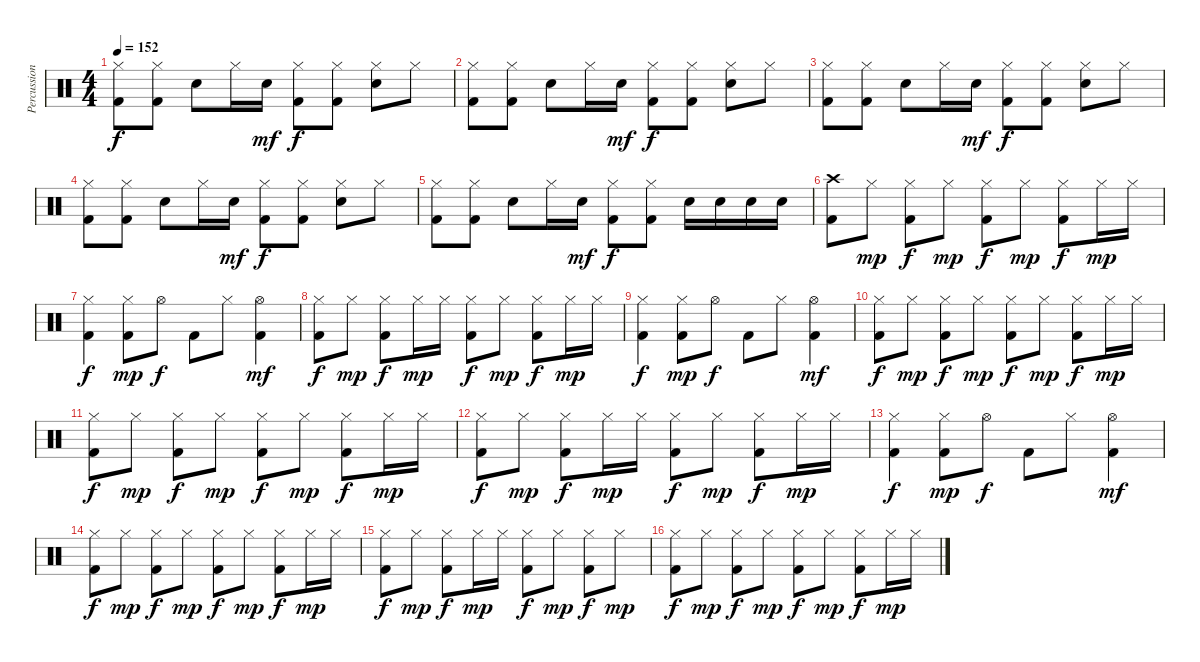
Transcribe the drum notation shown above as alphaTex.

\track ("Percussion" "Percussion") {instrument percussion}
\staff {score}
\articulation defaults
\ts (4 4)
\tempo 152
\clef neutral
\ks c
("Kick (hit) 2" "Hi-Hat (closed)").8{dy f} ("Kick (hit) 2" "Hi-Hat (closed)").8 "Electric Snare (hit)".8 "Hi-Hat (closed)".16 "Electric Snare (hit)".16{dy mf} ("Kick (hit) 2" "Hi-Hat (closed)").8{dy f} ("Kick (hit) 2" "Hi-Hat (closed)").8 ("Electric Snare (hit)" "Hi-Hat (closed)").8 "Hi-Hat (closed)".8 |
("Kick (hit) 2" "Hi-Hat (closed)").8 ("Kick (hit) 2" "Hi-Hat (closed)").8 "Electric Snare (hit)".8 "Hi-Hat (closed)".16 "Electric Snare (hit)".16{dy mf} ("Kick (hit) 2" "Hi-Hat (closed)").8{dy f} ("Kick (hit) 2" "Hi-Hat (closed)").8 ("Electric Snare (hit)" "Hi-Hat (closed)").8 "Hi-Hat (closed)".8 |
("Kick (hit) 2" "Hi-Hat (closed)").8 ("Kick (hit) 2" "Hi-Hat (closed)").8 "Electric Snare (hit)".8 "Hi-Hat (closed)".16 "Electric Snare (hit)".16{dy mf} ("Kick (hit) 2" "Hi-Hat (closed)").8{dy f} ("Kick (hit) 2" "Hi-Hat (closed)").8 ("Electric Snare (hit)" "Hi-Hat (closed)").8 "Hi-Hat (closed)".8 |
("Kick (hit) 2" "Hi-Hat (closed)").8 ("Kick (hit) 2" "Hi-Hat (closed)").8 "Electric Snare (hit)".8 "Hi-Hat (closed)".16 "Electric Snare (hit)".16{dy mf} ("Kick (hit) 2" "Hi-Hat (closed)").8{dy f} ("Kick (hit) 2" "Hi-Hat (closed)").8 ("Electric Snare (hit)" "Hi-Hat (closed)").8 "Hi-Hat (closed)".8 |
("Kick (hit) 2" "Hi-Hat (closed)").8 ("Kick (hit) 2" "Hi-Hat (closed)").8 "Electric Snare (hit)".8 "Hi-Hat (closed)".16 "Electric Snare (hit)".16{dy mf} ("Kick (hit) 2" "Hi-Hat (closed)").8{dy f} ("Kick (hit) 2" "Hi-Hat (closed)").8 "Electric Snare (hit)".16 "Electric Snare (hit)".16 "Electric Snare (hit)".16 "Electric Snare (hit)".16 |
("Kick (hit) 2" "Crash high (hit)").8 "Hi-Hat (closed)".8{dy mp} ("Kick (hit) 2" "Hi-Hat (closed)").8{dy f} "Hi-Hat (closed)".8{dy mp} ("Kick (hit) 2" "Hi-Hat (closed)").8{dy f} "Hi-Hat (closed)".8{dy mp} ("Kick (hit) 2" "Hi-Hat (closed)").8{dy f} "Hi-Hat (closed)".16{dy mp} "Hi-Hat (closed)".16 |
("Kick (hit) 2" "Hi-Hat (closed)").4{dy f} ("Kick (hit) 2" "Hi-Hat (closed)").8{dy mp} "Hi-Hat (open)".8{dy f} "Kick (hit) 2".8 "Hi-Hat (closed)".8 ("Hi-Hat (open)" "Kick (hit) 2").4{dy mf} |
("Kick (hit) 2" "Hi-Hat (closed)").8{dy f} "Hi-Hat (closed)".8{dy mp} ("Kick (hit) 2" "Hi-Hat (closed)").8{dy f} "Hi-Hat (closed)".16{dy mp} "Hi-Hat (closed)".16 ("Kick (hit) 2" "Hi-Hat (closed)").8{dy f} "Hi-Hat (closed)".8{dy mp} ("Kick (hit) 2" "Hi-Hat (closed)").8{dy f} "Hi-Hat (closed)".16{dy mp} "Hi-Hat (closed)".16 |
("Kick (hit) 2" "Hi-Hat (closed)").4{dy f} ("Kick (hit) 2" "Hi-Hat (closed)").8{dy mp} "Hi-Hat (open)".8{dy f} "Kick (hit) 2".8 "Hi-Hat (closed)".8 ("Hi-Hat (open)" "Kick (hit) 2").4{dy mf} |
("Kick (hit) 2" "Hi-Hat (closed)").8{dy f} "Hi-Hat (closed)".8{dy mp} ("Kick (hit) 2" "Hi-Hat (closed)").8{dy f} "Hi-Hat (closed)".8{dy mp} ("Kick (hit) 2" "Hi-Hat (closed)").8{dy f} "Hi-Hat (closed)".8{dy mp} ("Kick (hit) 2" "Hi-Hat (closed)").8{dy f} "Hi-Hat (closed)".16{dy mp} "Hi-Hat (closed)".16 |
("Kick (hit) 2" "Hi-Hat (closed)").8{dy f} "Hi-Hat (closed)".8{dy mp} ("Kick (hit) 2" "Hi-Hat (closed)").8{dy f} "Hi-Hat (closed)".8{dy mp} ("Kick (hit) 2" "Hi-Hat (closed)").8{dy f} "Hi-Hat (closed)".8{dy mp} ("Kick (hit) 2" "Hi-Hat (closed)").8{dy f} "Hi-Hat (closed)".16{dy mp} "Hi-Hat (closed)".16 |
("Kick (hit) 2" "Hi-Hat (closed)").8{dy f} "Hi-Hat (closed)".8{dy mp} ("Kick (hit) 2" "Hi-Hat (closed)").8{dy f} "Hi-Hat (closed)".16{dy mp} "Hi-Hat (closed)".16 ("Kick (hit) 2" "Hi-Hat (closed)").8{dy f} "Hi-Hat (closed)".8{dy mp} ("Kick (hit) 2" "Hi-Hat (closed)").8{dy f} "Hi-Hat (closed)".16{dy mp} "Hi-Hat (closed)".16 |
("Kick (hit) 2" "Hi-Hat (closed)").4{dy f} ("Kick (hit) 2" "Hi-Hat (closed)").8{dy mp} "Hi-Hat (open)".8{dy f} "Kick (hit) 2".8 "Hi-Hat (closed)".8 ("Hi-Hat (open)" "Kick (hit) 2").4{dy mf} |
("Kick (hit) 2" "Hi-Hat (closed)").8{dy f} "Hi-Hat (closed)".8{dy mp} ("Kick (hit) 2" "Hi-Hat (closed)").8{dy f} "Hi-Hat (closed)".8{dy mp} ("Kick (hit) 2" "Hi-Hat (closed)").8{dy f} "Hi-Hat (closed)".8{dy mp} ("Kick (hit) 2" "Hi-Hat (closed)").8{dy f} "Hi-Hat (closed)".16{dy mp} "Hi-Hat (closed)".16 |
("Kick (hit) 2" "Hi-Hat (closed)").8{dy f} "Hi-Hat (closed)".8{dy mp} ("Kick (hit) 2" "Hi-Hat (closed)").8{dy f} "Hi-Hat (closed)".16{dy mp} "Hi-Hat (closed)".16 ("Kick (hit) 2" "Hi-Hat (closed)").8{dy f} "Hi-Hat (closed)".8{dy mp} ("Kick (hit) 2" "Hi-Hat (closed)").8{dy f} "Hi-Hat (closed)".8{dy mp} |
("Kick (hit) 2" "Hi-Hat (closed)").8{dy f} "Hi-Hat (closed)".8{dy mp} ("Kick (hit) 2" "Hi-Hat (closed)").8{dy f} "Hi-Hat (closed)".8{dy mp} ("Kick (hit) 2" "Hi-Hat (closed)").8{dy f} "Hi-Hat (closed)".8{dy mp} ("Kick (hit) 2" "Hi-Hat (closed)").8{dy f} "Hi-Hat (closed)".16{dy mp} "Hi-Hat (closed)".16
